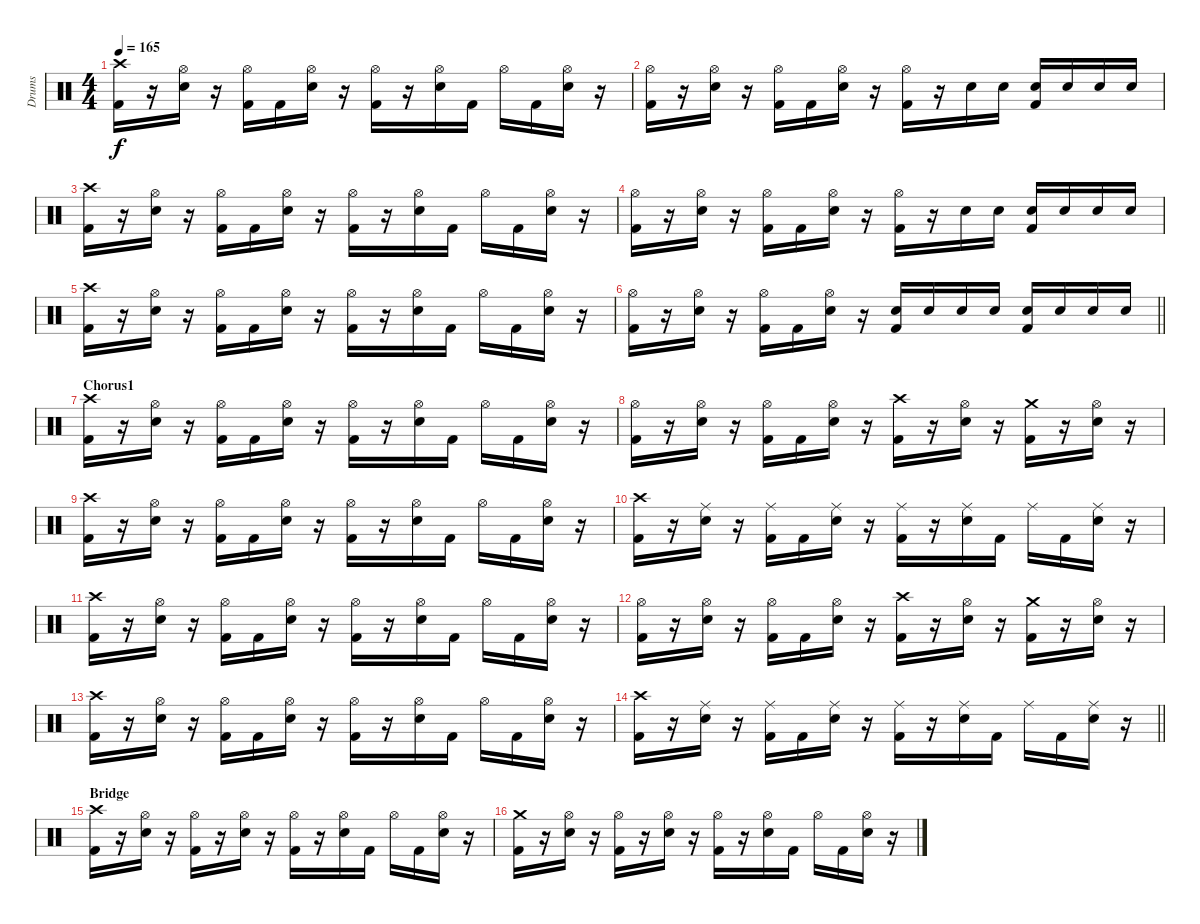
\track ("Drums" "Drums") {instrument percussion}
\staff {score}
\articulation defaults
\ts (4 4)
\tempo 165
\clef neutral
\ks c
("Crash high (hit)" "Kick (hit) 2").16{dy f} r.16 ("Hi-Hat (open)" "Electric Snare (hit)").16 r.16 ("Hi-Hat (open)" "Kick (hit) 2").16 "Kick (hit) 2".16 ("Hi-Hat (open)" "Electric Snare (hit)").16 r.16 ("Hi-Hat (open)" "Kick (hit) 2").16 r.16 ("Hi-Hat (open)" "Electric Snare (hit)").16 "Kick (hit) 2".16 "Hi-Hat (open)".16 "Kick (hit) 2".16 ("Hi-Hat (open)" "Electric Snare (hit)").16 r.16 |
("Hi-Hat (open)" "Kick (hit) 2").16 r.16 ("Hi-Hat (open)" "Electric Snare (hit)").16 r.16 ("Hi-Hat (open)" "Kick (hit) 2").16 "Kick (hit) 2".16 ("Hi-Hat (open)" "Electric Snare (hit)").16 r.16 ("Hi-Hat (open)" "Kick (hit) 2").16 r.16 "Electric Snare (hit)".16 "Electric Snare (hit)".16 ("Electric Snare (hit)" "Kick (hit) 2").16 "Electric Snare (hit)".16 "Electric Snare (hit)".16 "Electric Snare (hit)".16 |
("Crash high (hit)" "Kick (hit) 2").16 r.16 ("Hi-Hat (open)" "Electric Snare (hit)").16 r.16 ("Hi-Hat (open)" "Kick (hit) 2").16 "Kick (hit) 2".16 ("Hi-Hat (open)" "Electric Snare (hit)").16 r.16 ("Hi-Hat (open)" "Kick (hit) 2").16 r.16 ("Hi-Hat (open)" "Electric Snare (hit)").16 "Kick (hit) 2".16 "Hi-Hat (open)".16 "Kick (hit) 2".16 ("Hi-Hat (open)" "Electric Snare (hit)").16 r.16 |
("Hi-Hat (open)" "Kick (hit) 2").16 r.16 ("Hi-Hat (open)" "Electric Snare (hit)").16 r.16 ("Hi-Hat (open)" "Kick (hit) 2").16 "Kick (hit) 2".16 ("Hi-Hat (open)" "Electric Snare (hit)").16 r.16 ("Hi-Hat (open)" "Kick (hit) 2").16 r.16 "Electric Snare (hit)".16 "Electric Snare (hit)".16 ("Electric Snare (hit)" "Kick (hit) 2").16 "Electric Snare (hit)".16 "Electric Snare (hit)".16 "Electric Snare (hit)".16 |
("Crash high (hit)" "Kick (hit) 2").16 r.16 ("Hi-Hat (open)" "Electric Snare (hit)").16 r.16 ("Hi-Hat (open)" "Kick (hit) 2").16 "Kick (hit) 2".16 ("Hi-Hat (open)" "Electric Snare (hit)").16 r.16 ("Hi-Hat (open)" "Kick (hit) 2").16 r.16 ("Hi-Hat (open)" "Electric Snare (hit)").16 "Kick (hit) 2".16 "Hi-Hat (open)".16 "Kick (hit) 2".16 ("Hi-Hat (open)" "Electric Snare (hit)").16 r.16 |
\barLineRight lightlight
("Hi-Hat (open)" "Kick (hit) 2").16 r.16 ("Hi-Hat (open)" "Electric Snare (hit)").16 r.16 ("Hi-Hat (open)" "Kick (hit) 2").16 "Kick (hit) 2".16 ("Hi-Hat (open)" "Electric Snare (hit)").16 r.16 ("Electric Snare (hit)" "Kick (hit) 2").16 "Electric Snare (hit)".16 "Electric Snare (hit)".16 "Electric Snare (hit)".16 ("Electric Snare (hit)" "Kick (hit) 2").16 "Electric Snare (hit)".16 "Electric Snare (hit)".16 "Electric Snare (hit)".16 |
\section ("" "Chorus1")
("Crash high (hit)" "Kick (hit) 2").16 r.16 ("Hi-Hat (open)" "Electric Snare (hit)").16 r.16 ("Hi-Hat (open)" "Kick (hit) 2").16 "Kick (hit) 2".16 ("Hi-Hat (open)" "Electric Snare (hit)").16 r.16 ("Hi-Hat (open)" "Kick (hit) 2").16 r.16 ("Hi-Hat (open)" "Electric Snare (hit)").16 "Kick (hit) 2".16 "Hi-Hat (open)".16 "Kick (hit) 2".16 ("Hi-Hat (open)" "Electric Snare (hit)").16 r.16 |
("Hi-Hat (open)" "Kick (hit) 2").16 r.16 ("Hi-Hat (open)" "Electric Snare (hit)").16 r.16 ("Hi-Hat (open)" "Kick (hit) 2").16 "Kick (hit) 2".16 ("Hi-Hat (open)" "Electric Snare (hit)").16 r.16 ("Crash high (hit)" "Kick (hit) 2").16 r.16 ("Hi-Hat (open)" "Electric Snare (hit)").16 r.16 ("Crash medium (hit)" "Kick (hit) 2").16 r.16 ("Hi-Hat (open)" "Electric Snare (hit)").16 r.16 |
("Crash high (hit)" "Kick (hit) 2").16 r.16 ("Hi-Hat (open)" "Electric Snare (hit)").16 r.16 ("Hi-Hat (open)" "Kick (hit) 2").16 "Kick (hit) 2".16 ("Hi-Hat (open)" "Electric Snare (hit)").16 r.16 ("Hi-Hat (open)" "Kick (hit) 2").16 r.16 ("Hi-Hat (open)" "Electric Snare (hit)").16 "Kick (hit) 2".16 "Hi-Hat (open)".16 "Kick (hit) 2".16 ("Hi-Hat (open)" "Electric Snare (hit)").16 r.16 |
("Crash high (hit)" "Kick (hit) 2").16 r.16 ("Ride (middle)" "Electric Snare (hit)").16 r.16 ("Ride (middle)" "Kick (hit) 2").16 "Kick (hit) 2".16 ("Ride (middle)" "Electric Snare (hit)").16 r.16 ("Ride (middle)" "Kick (hit) 2").16 r.16 ("Ride (middle)" "Electric Snare (hit)").16 "Kick (hit) 2".16 "Ride (middle)".16 "Kick (hit) 2".16 ("Ride (middle)" "Electric Snare (hit)").16 r.16 |
("Crash high (hit)" "Kick (hit) 2").16 r.16 ("Hi-Hat (open)" "Electric Snare (hit)").16 r.16 ("Hi-Hat (open)" "Kick (hit) 2").16 "Kick (hit) 2".16 ("Hi-Hat (open)" "Electric Snare (hit)").16 r.16 ("Hi-Hat (open)" "Kick (hit) 2").16 r.16 ("Hi-Hat (open)" "Electric Snare (hit)").16 "Kick (hit) 2".16 "Hi-Hat (open)".16 "Kick (hit) 2".16 ("Hi-Hat (open)" "Electric Snare (hit)").16 r.16 |
("Hi-Hat (open)" "Kick (hit) 2").16 r.16 ("Hi-Hat (open)" "Electric Snare (hit)").16 r.16 ("Hi-Hat (open)" "Kick (hit) 2").16 "Kick (hit) 2".16 ("Hi-Hat (open)" "Electric Snare (hit)").16 r.16 ("Crash high (hit)" "Kick (hit) 2").16 r.16 ("Hi-Hat (open)" "Electric Snare (hit)").16 r.16 ("Crash medium (hit)" "Kick (hit) 2").16 r.16 ("Hi-Hat (open)" "Electric Snare (hit)").16 r.16 |
("Crash high (hit)" "Kick (hit) 2").16 r.16 ("Hi-Hat (open)" "Electric Snare (hit)").16 r.16 ("Hi-Hat (open)" "Kick (hit) 2").16 "Kick (hit) 2".16 ("Hi-Hat (open)" "Electric Snare (hit)").16 r.16 ("Hi-Hat (open)" "Kick (hit) 2").16 r.16 ("Hi-Hat (open)" "Electric Snare (hit)").16 "Kick (hit) 2".16 "Hi-Hat (open)".16 "Kick (hit) 2".16 ("Hi-Hat (open)" "Electric Snare (hit)").16 r.16 |
\barLineRight lightlight
("Crash high (hit)" "Kick (hit) 2").16 r.16 ("Ride (middle)" "Electric Snare (hit)").16 r.16 ("Ride (middle)" "Kick (hit) 2").16 "Kick (hit) 2".16 ("Ride (middle)" "Electric Snare (hit)").16 r.16 ("Ride (middle)" "Kick (hit) 2").16 r.16 ("Ride (middle)" "Electric Snare (hit)").16 "Kick (hit) 2".16 "Ride (middle)".16 "Kick (hit) 2".16 ("Ride (middle)" "Electric Snare (hit)").16 r.16 |
\section ("" "Bridge")
("Crash high (hit)" "Kick (hit) 2").16 r.16 ("Hi-Hat (open)" "Electric Snare (hit)").16 r.16 ("Hi-Hat (open)" "Kick (hit) 2").16 r.16 ("Hi-Hat (open)" "Electric Snare (hit)").16 r.16 ("Hi-Hat (open)" "Kick (hit) 2").16 r.16 ("Hi-Hat (open)" "Electric Snare (hit)").16 "Kick (hit) 2".16 "Hi-Hat (open)".16 "Kick (hit) 2".16 ("Hi-Hat (open)" "Electric Snare (hit)").16 r.16 |
("Crash medium (hit)" "Kick (hit) 2").16 r.16 ("Hi-Hat (open)" "Electric Snare (hit)").16 r.16 ("Hi-Hat (open)" "Kick (hit) 2").16 r.16 ("Hi-Hat (open)" "Electric Snare (hit)").16 r.16 ("Hi-Hat (open)" "Kick (hit) 2").16 r.16 ("Hi-Hat (open)" "Electric Snare (hit)").16 "Kick (hit) 2".16 "Hi-Hat (open)".16 "Kick (hit) 2".16 ("Hi-Hat (open)" "Electric Snare (hit)").16 r.16
